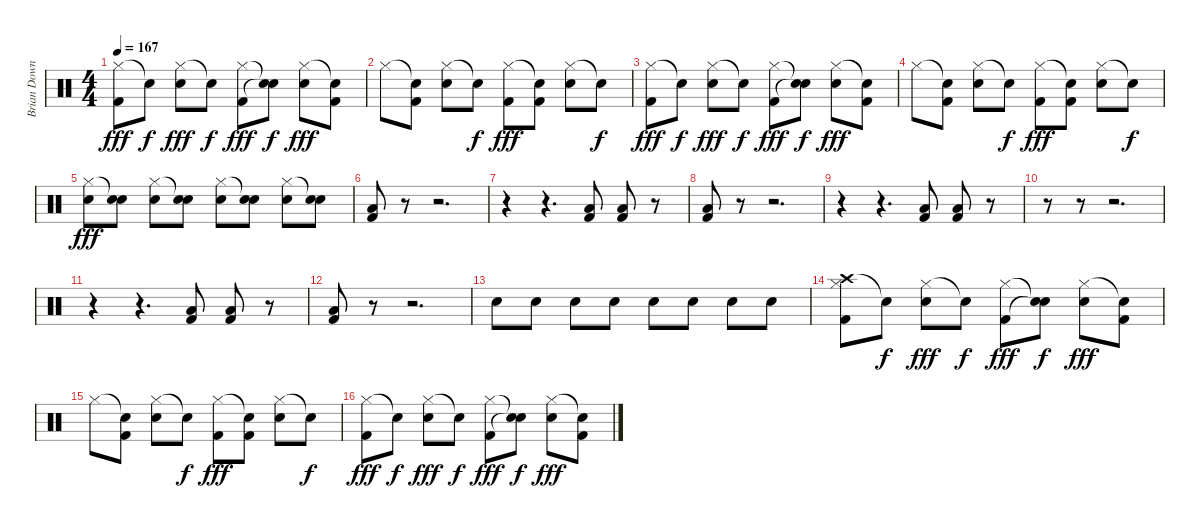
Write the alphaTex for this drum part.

\track ("Brian Downey" "Brian Down") {instrument percussion}
\staff {score}
\articulation defaults
\ts (4 4)
\tempo 167
\clef neutral
\ks c
("Hi-Hat (closed)" "Kick (hit) 2").8{dy fff} "Snare (hit)"{t}.8{dy f} ("Hi-Hat (closed)" "Electric Snare (hit)").8{dy fff} "Snare (hit)"{t}.8{dy f} ("Hi-Hat (closed)" "Kick (hit) 2").8{dy fff} ("Snare (hit)"{t} "Electric Snare (hit)"{t}).8{dy f} ("Hi-Hat (closed)" "Electric Snare (hit)").8{dy fff} ("Snare (hit)"{t} "Kick (hit) 2").8 |
"Hi-Hat (closed)".8 ("Snare (hit)"{t} "Kick (hit) 2").8 ("Hi-Hat (closed)" "Electric Snare (hit)").8 "Snare (hit)"{t}.8{dy f} ("Hi-Hat (closed)" "Kick (hit) 2").8{dy fff} ("Snare (hit)"{t} "Kick (hit) 2").8 ("Hi-Hat (closed)" "Electric Snare (hit)").8 "Snare (hit)"{t}.8{dy f} |
("Hi-Hat (closed)" "Kick (hit) 2").8{dy fff} "Snare (hit)"{t}.8{dy f} ("Hi-Hat (closed)" "Electric Snare (hit)").8{dy fff} "Snare (hit)"{t}.8{dy f} ("Hi-Hat (closed)" "Kick (hit) 2").8{dy fff} ("Snare (hit)"{t} "Electric Snare (hit)"{t}).8{dy f} ("Hi-Hat (closed)" "Electric Snare (hit)").8{dy fff} ("Snare (hit)"{t} "Kick (hit) 2").8 |
"Hi-Hat (closed)".8 ("Snare (hit)"{t} "Kick (hit) 2").8 ("Hi-Hat (closed)" "Electric Snare (hit)").8 "Snare (hit)"{t}.8{dy f} ("Hi-Hat (closed)" "Kick (hit) 2").8{dy fff} ("Snare (hit)"{t} "Kick (hit) 2").8 ("Hi-Hat (closed)" "Electric Snare (hit)").8 "Snare (hit)"{t}.8{dy f} |
("Hi-Hat (closed)" "Electric Snare (hit)").8{dy fff} ("Snare (hit)"{t} "Electric Snare (hit)").8 ("Hi-Hat (closed)" "Electric Snare (hit)").8 ("Snare (hit)"{t} "Electric Snare (hit)").8 ("Hi-Hat (closed)" "Electric Snare (hit)").8 ("Snare (hit)"{t} "Electric Snare (hit)").8 ("Hi-Hat (closed)" "Electric Snare (hit)").8 ("Snare (hit)"{t} "Electric Snare (hit)").8 |
("Low Floor Tom (hit)" "Kick (hit) 2").8 r.8 r.2{d} |
r.4 r.4{d} ("Low Floor Tom (hit)" "Kick (hit) 2").8 ("Low Floor Tom (hit)" "Kick (hit) 2").8 r.8 |
("Low Floor Tom (hit)" "Kick (hit) 2").8 r.8 r.2{d} |
r.4 r.4{d} ("Low Floor Tom (hit)" "Kick (hit) 2").8 ("Low Floor Tom (hit)" "Kick (hit) 2").8 r.8 |
r.8 r.8 r.2{d} |
r.4 r.4{d} ("Low Floor Tom (hit)" "Kick (hit) 2").8 ("Low Floor Tom (hit)" "Kick (hit) 2").8 r.8 |
("Low Floor Tom (hit)" "Kick (hit) 2").8 r.8 r.2{d} |
"Electric Snare (hit)".8 "Electric Snare (hit)".8 "Electric Snare (hit)".8 "Electric Snare (hit)".8 "Electric Snare (hit)".8 "Electric Snare (hit)".8 "Electric Snare (hit)".8 "Electric Snare (hit)".8 |
("Crash high (hit)" "Hi-Hat (closed)" "Kick (hit) 2").8 "Snare (hit)"{t}.8{dy f} ("Hi-Hat (closed)" "Electric Snare (hit)").8{dy fff} "Snare (hit)"{t}.8{dy f} ("Hi-Hat (closed)" "Kick (hit) 2").8{dy fff} ("Snare (hit)"{t} "Electric Snare (hit)"{t}).8{dy f} ("Hi-Hat (closed)" "Electric Snare (hit)").8{dy fff} ("Snare (hit)"{t} "Kick (hit) 2").8 |
"Hi-Hat (closed)".8 ("Snare (hit)"{t} "Kick (hit) 2").8 ("Hi-Hat (closed)" "Electric Snare (hit)").8 "Snare (hit)"{t}.8{dy f} ("Hi-Hat (closed)" "Kick (hit) 2").8{dy fff} ("Snare (hit)"{t} "Kick (hit) 2").8 ("Hi-Hat (closed)" "Electric Snare (hit)").8 "Snare (hit)"{t}.8{dy f} |
("Hi-Hat (closed)" "Kick (hit) 2").8{dy fff} "Snare (hit)"{t}.8{dy f} ("Hi-Hat (closed)" "Electric Snare (hit)").8{dy fff} "Snare (hit)"{t}.8{dy f} ("Hi-Hat (closed)" "Kick (hit) 2").8{dy fff} ("Snare (hit)"{t} "Electric Snare (hit)"{t}).8{dy f} ("Hi-Hat (closed)" "Electric Snare (hit)").8{dy fff} ("Snare (hit)"{t} "Kick (hit) 2").8
